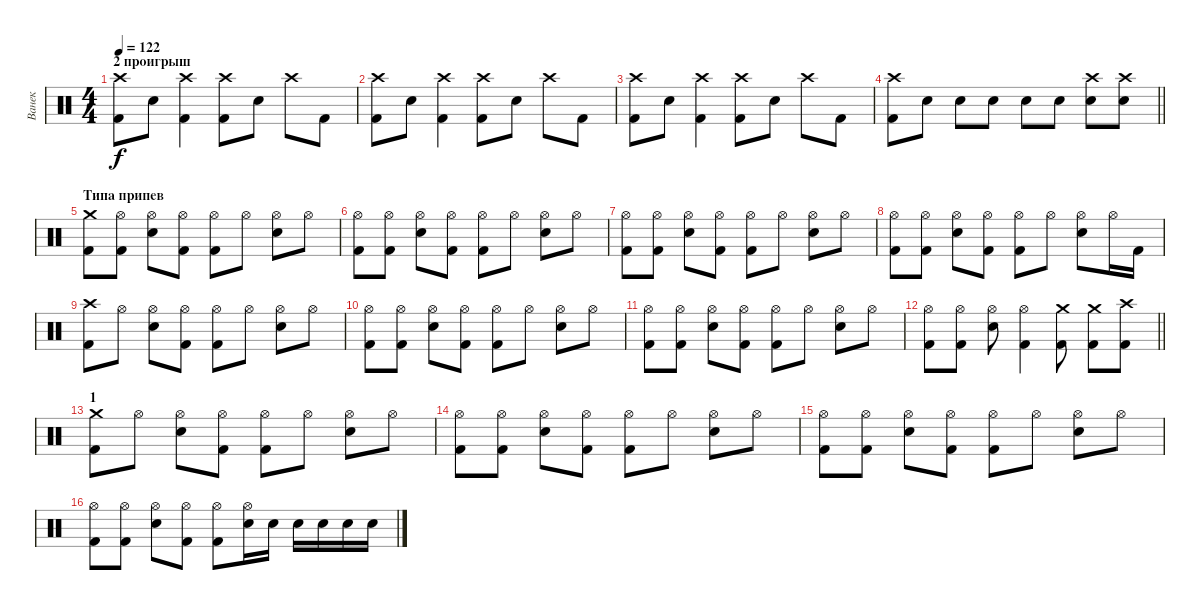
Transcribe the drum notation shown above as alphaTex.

\track ("Ванек" "Ванек") {instrument percussion}
\staff {score}
\articulation defaults
\ts (4 4)
\section ("" "2 проигрыш")
\tempo 122
\clef neutral
\ks c
("Crash high (hit)" "Kick (hit) 2").8{dy f} "Electric Snare (hit)".8 ("Crash high (hit)" "Kick (hit) 2").4 ("Crash high (hit)" "Kick (hit) 2").8 "Electric Snare (hit)".8 "Crash high (hit)".8 "Kick (hit) 2".8 |
("Crash high (hit)" "Kick (hit) 2").8 "Electric Snare (hit)".8 ("Crash high (hit)" "Kick (hit) 2").4 ("Crash high (hit)" "Kick (hit) 2").8 "Electric Snare (hit)".8 "Crash high (hit)".8 "Kick (hit) 2".8 |
("Crash high (hit)" "Kick (hit) 2").8 "Electric Snare (hit)".8 ("Crash high (hit)" "Kick (hit) 2").4 ("Crash high (hit)" "Kick (hit) 2").8 "Electric Snare (hit)".8 "Crash high (hit)".8 "Kick (hit) 2".8 |
\barLineRight lightlight
("Crash high (hit)" "Kick (hit) 2").8 "Electric Snare (hit)".8 "Electric Snare (hit)".8 "Electric Snare (hit)".8 "Electric Snare (hit)".8 "Electric Snare (hit)".8 ("Crash high (hit)" "Electric Snare (hit)").8 ("Crash high (hit)" "Electric Snare (hit)").8 |
\section ("" "Типа припев")
("Crash medium (hit)" "Kick (hit) 2").8 ("Hi-Hat (open)" "Kick (hit) 2").8 ("Hi-Hat (open)" "Electric Snare (hit)").8 ("Hi-Hat (open)" "Kick (hit) 2").8 ("Hi-Hat (open)" "Kick (hit) 2").8 "Hi-Hat (open)".8 ("Hi-Hat (open)" "Electric Snare (hit)").8 "Hi-Hat (open)".8 |
("Hi-Hat (open)" "Kick (hit) 2").8 ("Hi-Hat (open)" "Kick (hit) 2").8 ("Hi-Hat (open)" "Electric Snare (hit)").8 ("Hi-Hat (open)" "Kick (hit) 2").8 ("Hi-Hat (open)" "Kick (hit) 2").8 "Hi-Hat (open)".8 ("Hi-Hat (open)" "Electric Snare (hit)").8 "Hi-Hat (open)".8 |
("Hi-Hat (open)" "Kick (hit) 2").8 ("Hi-Hat (open)" "Kick (hit) 2").8 ("Hi-Hat (open)" "Electric Snare (hit)").8 ("Hi-Hat (open)" "Kick (hit) 2").8 ("Hi-Hat (open)" "Kick (hit) 2").8 "Hi-Hat (open)".8 ("Hi-Hat (open)" "Electric Snare (hit)").8 "Hi-Hat (open)".8 |
("Hi-Hat (open)" "Kick (hit) 2").8 ("Hi-Hat (open)" "Kick (hit) 2").8 ("Hi-Hat (open)" "Electric Snare (hit)").8 ("Hi-Hat (open)" "Kick (hit) 2").8 ("Hi-Hat (open)" "Kick (hit) 2").8 "Hi-Hat (open)".8 ("Hi-Hat (open)" "Electric Snare (hit)").8 "Hi-Hat (open)".16 "Kick (hit) 2".16 |
("Crash high (hit)" "Kick (hit) 2").8 "Hi-Hat (open)".8 ("Hi-Hat (open)" "Electric Snare (hit)").8 ("Hi-Hat (open)" "Kick (hit) 2").8 ("Hi-Hat (open)" "Kick (hit) 2").8 "Hi-Hat (open)".8 ("Hi-Hat (open)" "Electric Snare (hit)").8 "Hi-Hat (open)".8 |
("Hi-Hat (open)" "Kick (hit) 2").8 ("Hi-Hat (open)" "Kick (hit) 2").8 ("Hi-Hat (open)" "Electric Snare (hit)").8 ("Hi-Hat (open)" "Kick (hit) 2").8 ("Hi-Hat (open)" "Kick (hit) 2").8 "Hi-Hat (open)".8 ("Hi-Hat (open)" "Electric Snare (hit)").8 "Hi-Hat (open)".8 |
("Hi-Hat (open)" "Kick (hit) 2").8 ("Hi-Hat (open)" "Kick (hit) 2").8 ("Hi-Hat (open)" "Electric Snare (hit)").8 ("Hi-Hat (open)" "Kick (hit) 2").8 ("Hi-Hat (open)" "Kick (hit) 2").8 "Hi-Hat (open)".8 ("Hi-Hat (open)" "Electric Snare (hit)").8 "Hi-Hat (open)".8 |
\barLineRight lightlight
("Hi-Hat (open)" "Kick (hit) 2").8 ("Hi-Hat (open)" "Kick (hit) 2").8 ("Hi-Hat (open)" "Electric Snare (hit)").8 ("Hi-Hat (open)" "Kick (hit) 2").4 ("Crash medium (hit)" "Kick (hit) 2").8 ("Crash medium (hit)" "Kick (hit) 2").8 ("Crash high (hit)" "Kick (hit) 2").8 |
\section ("" "1")
("Crash medium (hit)" "Kick (hit) 2").8 "Hi-Hat (open)".8 ("Hi-Hat (open)" "Electric Snare (hit)").8 ("Hi-Hat (open)" "Kick (hit) 2").8 ("Hi-Hat (open)" "Kick (hit) 2").8 "Hi-Hat (open)".8 ("Hi-Hat (open)" "Electric Snare (hit)").8 "Hi-Hat (open)".8 |
("Hi-Hat (open)" "Kick (hit) 2").8 ("Hi-Hat (open)" "Kick (hit) 2").8 ("Hi-Hat (open)" "Electric Snare (hit)").8 ("Hi-Hat (open)" "Kick (hit) 2").8 ("Hi-Hat (open)" "Kick (hit) 2").8 "Hi-Hat (open)".8 ("Hi-Hat (open)" "Electric Snare (hit)").8 "Hi-Hat (open)".8 |
("Hi-Hat (open)" "Kick (hit) 2").8 ("Hi-Hat (open)" "Kick (hit) 2").8 ("Hi-Hat (open)" "Electric Snare (hit)").8 ("Hi-Hat (open)" "Kick (hit) 2").8 ("Hi-Hat (open)" "Kick (hit) 2").8 "Hi-Hat (open)".8 ("Hi-Hat (open)" "Electric Snare (hit)").8 "Hi-Hat (open)".8 |
("Hi-Hat (open)" "Kick (hit) 2").8 ("Hi-Hat (open)" "Kick (hit) 2").8 ("Hi-Hat (open)" "Electric Snare (hit)").8 ("Hi-Hat (open)" "Kick (hit) 2").8 ("Hi-Hat (open)" "Kick (hit) 2").8 ("Hi-Hat (open)" "Electric Snare (hit)").16 "Electric Snare (hit)".16 "Electric Snare (hit)".16 "Electric Snare (hit)".16 "Electric Snare (hit)".16 "Electric Snare (hit)".16
